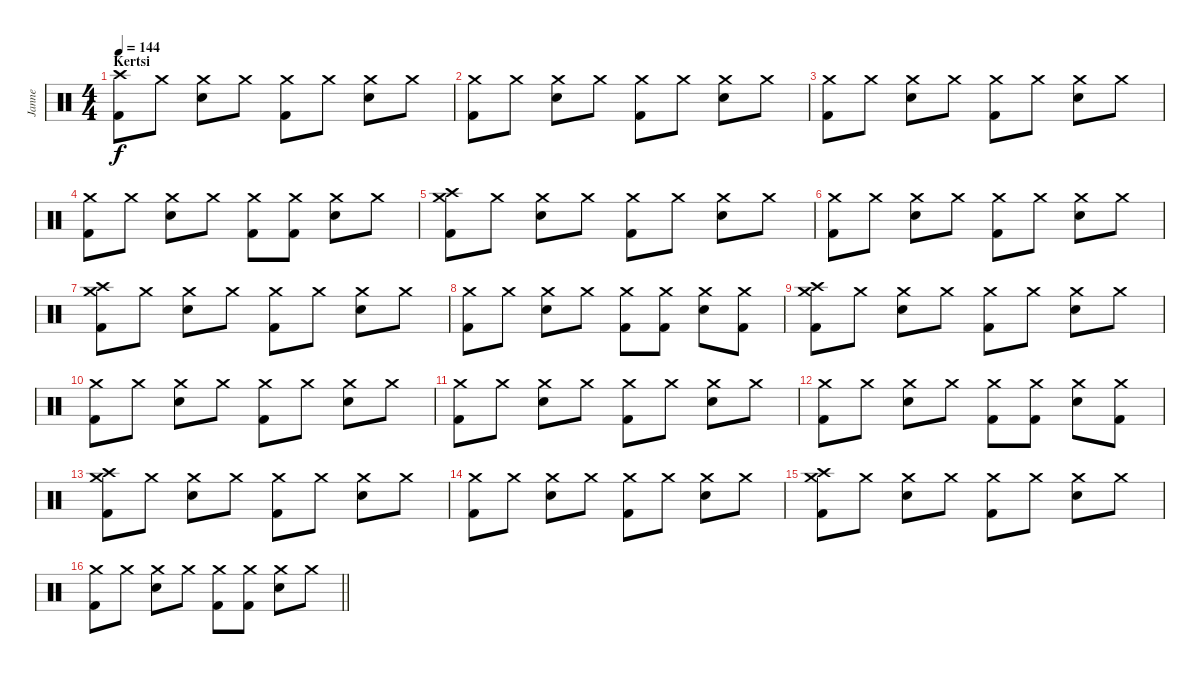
\track ("Janne" "Janne") {instrument percussion}
\staff {score}
\articulation defaults
\ts (4 4)
\section ("" "Kertsi")
\tempo 144
\clef neutral
\ks c
("Crash high (hit)" "Kick (hit) 2").8{dy f} "Crash medium (hit)".8 ("Crash medium (hit)" "Electric Snare (hit)").8 "Crash medium (hit)".8 ("Crash medium (hit)" "Kick (hit) 2").8 "Crash medium (hit)".8 ("Crash medium (hit)" "Electric Snare (hit)").8 "Crash medium (hit)".8 |
("Crash medium (hit)" "Kick (hit) 2").8 "Crash medium (hit)".8 ("Crash medium (hit)" "Electric Snare (hit)").8 "Crash medium (hit)".8 ("Crash medium (hit)" "Kick (hit) 2").8 "Crash medium (hit)".8 ("Crash medium (hit)" "Electric Snare (hit)").8 "Crash medium (hit)".8 |
("Crash medium (hit)" "Kick (hit) 2").8 "Crash medium (hit)".8 ("Crash medium (hit)" "Electric Snare (hit)").8 "Crash medium (hit)".8 ("Crash medium (hit)" "Kick (hit) 2").8 "Crash medium (hit)".8 ("Crash medium (hit)" "Electric Snare (hit)").8 "Crash medium (hit)".8 |
("Crash medium (hit)" "Kick (hit) 2").8 "Crash medium (hit)".8 ("Crash medium (hit)" "Electric Snare (hit)").8 "Crash medium (hit)".8 ("Crash medium (hit)" "Kick (hit) 2").8 ("Crash medium (hit)" "Kick (hit) 2").8 ("Crash medium (hit)" "Electric Snare (hit)").8 "Crash medium (hit)".8 |
("Crash medium (hit)" "Crash high (hit)" "Kick (hit) 2").8 "Crash medium (hit)".8 ("Crash medium (hit)" "Electric Snare (hit)").8 "Crash medium (hit)".8 ("Crash medium (hit)" "Kick (hit) 2").8 "Crash medium (hit)".8 ("Crash medium (hit)" "Electric Snare (hit)").8 "Crash medium (hit)".8 |
("Crash medium (hit)" "Kick (hit) 2").8 "Crash medium (hit)".8 ("Crash medium (hit)" "Electric Snare (hit)").8 "Crash medium (hit)".8 ("Crash medium (hit)" "Kick (hit) 2").8 "Crash medium (hit)".8 ("Crash medium (hit)" "Electric Snare (hit)").8 "Crash medium (hit)".8 |
("Crash medium (hit)" "Crash high (hit)" "Kick (hit) 2").8 "Crash medium (hit)".8 ("Crash medium (hit)" "Electric Snare (hit)").8 "Crash medium (hit)".8 ("Crash medium (hit)" "Kick (hit) 2").8 "Crash medium (hit)".8 ("Crash medium (hit)" "Electric Snare (hit)").8 "Crash medium (hit)".8 |
("Crash medium (hit)" "Kick (hit) 2").8 "Crash medium (hit)".8 ("Crash medium (hit)" "Electric Snare (hit)").8 "Crash medium (hit)".8 ("Crash medium (hit)" "Kick (hit) 2").8 ("Crash medium (hit)" "Kick (hit) 2").8 ("Crash medium (hit)" "Electric Snare (hit)").8 ("Crash medium (hit)" "Kick (hit) 2").8 |
("Crash high (hit)" "Crash medium (hit)" "Kick (hit) 2").8 "Crash medium (hit)".8 ("Crash medium (hit)" "Electric Snare (hit)").8 "Crash medium (hit)".8 ("Crash medium (hit)" "Kick (hit) 2").8 "Crash medium (hit)".8 ("Crash medium (hit)" "Electric Snare (hit)").8 "Crash medium (hit)".8 |
("Crash medium (hit)" "Kick (hit) 2").8 "Crash medium (hit)".8 ("Crash medium (hit)" "Electric Snare (hit)").8 "Crash medium (hit)".8 ("Crash medium (hit)" "Kick (hit) 2").8 "Crash medium (hit)".8 ("Crash medium (hit)" "Electric Snare (hit)").8 "Crash medium (hit)".8 |
("Crash medium (hit)" "Kick (hit) 2").8 "Crash medium (hit)".8 ("Crash medium (hit)" "Electric Snare (hit)").8 "Crash medium (hit)".8 ("Crash medium (hit)" "Kick (hit) 2").8 "Crash medium (hit)".8 ("Crash medium (hit)" "Electric Snare (hit)").8 "Crash medium (hit)".8 |
("Crash medium (hit)" "Kick (hit) 2").8 "Crash medium (hit)".8 ("Crash medium (hit)" "Electric Snare (hit)").8 "Crash medium (hit)".8 ("Crash medium (hit)" "Kick (hit) 2").8 ("Crash medium (hit)" "Kick (hit) 2").8 ("Crash medium (hit)" "Electric Snare (hit)").8 ("Crash medium (hit)" "Kick (hit) 2").8 |
("Crash medium (hit)" "Crash high (hit)" "Kick (hit) 2").8 "Crash medium (hit)".8 ("Crash medium (hit)" "Electric Snare (hit)").8 "Crash medium (hit)".8 ("Crash medium (hit)" "Kick (hit) 2").8 "Crash medium (hit)".8 ("Crash medium (hit)" "Electric Snare (hit)").8 "Crash medium (hit)".8 |
("Crash medium (hit)" "Kick (hit) 2").8 "Crash medium (hit)".8 ("Crash medium (hit)" "Electric Snare (hit)").8 "Crash medium (hit)".8 ("Crash medium (hit)" "Kick (hit) 2").8 "Crash medium (hit)".8 ("Crash medium (hit)" "Electric Snare (hit)").8 "Crash medium (hit)".8 |
("Crash medium (hit)" "Crash high (hit)" "Kick (hit) 2").8 "Crash medium (hit)".8 ("Crash medium (hit)" "Electric Snare (hit)").8 "Crash medium (hit)".8 ("Crash medium (hit)" "Kick (hit) 2").8 "Crash medium (hit)".8 ("Crash medium (hit)" "Electric Snare (hit)").8 "Crash medium (hit)".8 |
\barLineRight lightlight
("Crash medium (hit)" "Kick (hit) 2").8 "Crash medium (hit)".8 ("Crash medium (hit)" "Electric Snare (hit)").8 "Crash medium (hit)".8 ("Crash medium (hit)" "Kick (hit) 2").8 ("Crash medium (hit)" "Kick (hit) 2").8 ("Crash medium (hit)" "Electric Snare (hit)").8 "Crash medium (hit)".8
